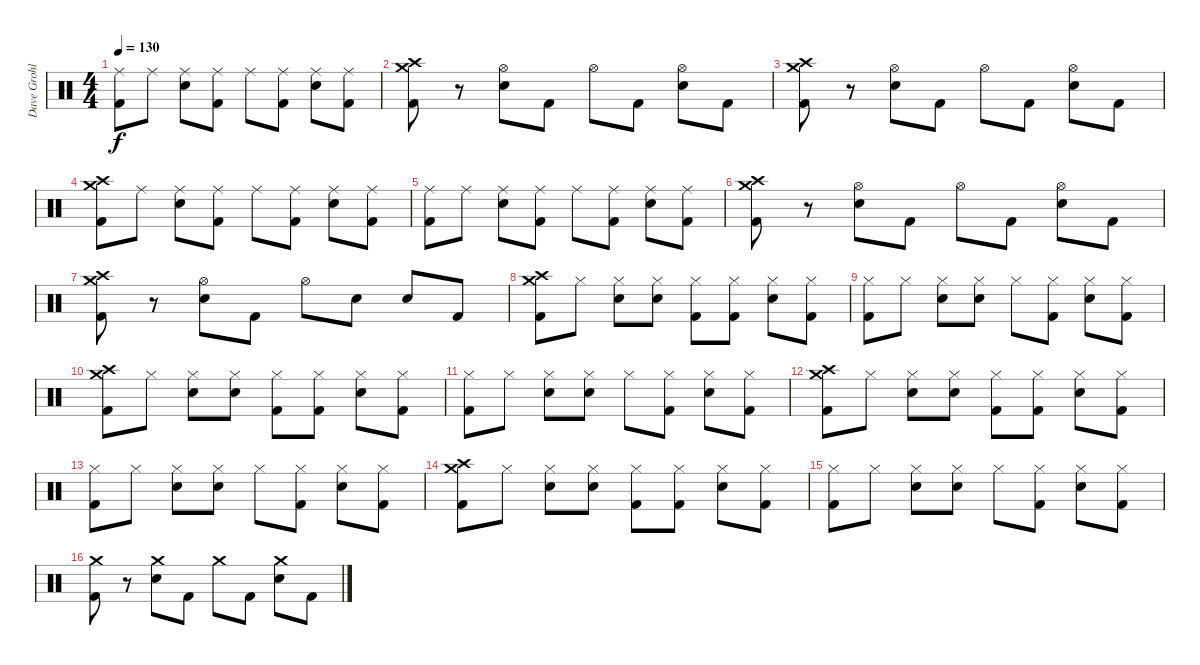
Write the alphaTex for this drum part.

\track ("Dave Grohl" "Dave Grohl") {instrument percussion}
\staff {score}
\articulation defaults
\ts (4 4)
\tempo 130
\clef neutral
\ks c
("Ride (middle)" "Kick (hit) 2").8{dy f} "Ride (middle)".8 ("Ride (middle)" "Snare (hit) 2").8 ("Ride (middle)" "Kick (hit) 2").8 "Ride (middle)".8 ("Ride (middle)" "Kick (hit) 2").8 ("Ride (middle)" "Snare (hit) 2").8 ("Ride (middle)" "Kick (hit) 2").8 |
("Crash high (hit)" "Crash medium (hit)" "Kick (hit) 2").8 r.8 ("Hi-Hat (open)" "Snare (hit) 2").8 "Kick (hit) 2".8 "Hi-Hat (open)".8 "Kick (hit) 2".8 ("Hi-Hat (open)" "Snare (hit) 2").8 "Kick (hit) 2".8 |
("Crash high (hit)" "Crash medium (hit)" "Kick (hit) 2").8 r.8 ("Hi-Hat (open)" "Snare (hit) 2").8 "Kick (hit) 2".8 "Hi-Hat (open)".8 "Kick (hit) 2".8 ("Hi-Hat (open)" "Snare (hit) 2").8 "Kick (hit) 2".8 |
("Crash high (hit)" "Crash medium (hit)" "Kick (hit) 2").8 "Ride (middle)".8 ("Ride (middle)" "Snare (hit) 2").8 ("Ride (middle)" "Kick (hit) 2").8 "Ride (middle)".8 ("Ride (middle)" "Kick (hit) 2").8 ("Ride (middle)" "Snare (hit) 2").8 ("Ride (middle)" "Kick (hit) 2").8 |
("Ride (middle)" "Kick (hit) 2").8 "Ride (middle)".8 ("Ride (middle)" "Snare (hit) 2").8 ("Ride (middle)" "Kick (hit) 2").8 "Ride (middle)".8 ("Ride (middle)" "Kick (hit) 2").8 ("Ride (middle)" "Snare (hit) 2").8 ("Ride (middle)" "Kick (hit) 2").8 |
("Crash high (hit)" "Crash medium (hit)" "Kick (hit) 2").8 r.8 ("Hi-Hat (open)" "Snare (hit) 2").8 "Kick (hit) 2".8 "Hi-Hat (open)".8 "Kick (hit) 2".8 ("Hi-Hat (open)" "Snare (hit) 2").8 "Kick (hit) 2".8 |
("Crash high (hit)" "Crash medium (hit)" "Kick (hit) 2").8 r.8 ("Hi-Hat (open)" "Snare (hit) 2").8 "Kick (hit) 2".8 "Hi-Hat (open)".8 "Snare (hit) 2".8 "Snare (hit) 2".8 "Kick (hit) 2".8 |
("Crash high (hit)" "Crash medium (hit)" "Kick (hit) 2").8 "Hi-Hat (closed)".8 ("Hi-Hat (closed)" "Snare (hit) 2").8 ("Hi-Hat (closed)" "Snare (hit) 2").8 ("Hi-Hat (closed)" "Kick (hit) 2").8 ("Hi-Hat (closed)" "Kick (hit) 2").8 ("Hi-Hat (closed)" "Snare (hit) 2").8 ("Hi-Hat (closed)" "Kick (hit) 2").8 |
("Hi-Hat (closed)" "Kick (hit) 2").8 "Hi-Hat (closed)".8 ("Hi-Hat (closed)" "Snare (hit) 2").8 ("Hi-Hat (closed)" "Snare (hit) 2").8 "Hi-Hat (closed)".8 ("Hi-Hat (closed)" "Kick (hit) 2").8 ("Hi-Hat (closed)" "Snare (hit) 2").8 ("Hi-Hat (closed)" "Kick (hit) 2").8 |
("Crash high (hit)" "Crash medium (hit)" "Kick (hit) 2").8 "Hi-Hat (closed)".8 ("Hi-Hat (closed)" "Snare (hit) 2").8 ("Hi-Hat (closed)" "Snare (hit) 2").8 ("Hi-Hat (closed)" "Kick (hit) 2").8 ("Hi-Hat (closed)" "Kick (hit) 2").8 ("Hi-Hat (closed)" "Snare (hit) 2").8 ("Hi-Hat (closed)" "Kick (hit) 2").8 |
("Hi-Hat (closed)" "Kick (hit) 2").8 "Hi-Hat (closed)".8 ("Hi-Hat (closed)" "Snare (hit) 2").8 ("Hi-Hat (closed)" "Snare (hit) 2").8 "Hi-Hat (closed)".8 ("Hi-Hat (closed)" "Kick (hit) 2").8 ("Hi-Hat (closed)" "Snare (hit) 2").8 ("Hi-Hat (closed)" "Kick (hit) 2").8 |
("Crash high (hit)" "Crash medium (hit)" "Kick (hit) 2").8 "Hi-Hat (closed)".8 ("Hi-Hat (closed)" "Snare (hit) 2").8 ("Hi-Hat (closed)" "Snare (hit) 2").8 ("Hi-Hat (closed)" "Kick (hit) 2").8 ("Hi-Hat (closed)" "Kick (hit) 2").8 ("Hi-Hat (closed)" "Snare (hit) 2").8 ("Hi-Hat (closed)" "Kick (hit) 2").8 |
("Hi-Hat (closed)" "Kick (hit) 2").8 "Hi-Hat (closed)".8 ("Hi-Hat (closed)" "Snare (hit) 2").8 ("Hi-Hat (closed)" "Snare (hit) 2").8 "Hi-Hat (closed)".8 ("Hi-Hat (closed)" "Kick (hit) 2").8 ("Hi-Hat (closed)" "Snare (hit) 2").8 ("Hi-Hat (closed)" "Kick (hit) 2").8 |
("Crash high (hit)" "Crash medium (hit)" "Kick (hit) 2").8 "Hi-Hat (closed)".8 ("Hi-Hat (closed)" "Snare (hit) 2").8 ("Hi-Hat (closed)" "Snare (hit) 2").8 ("Hi-Hat (closed)" "Kick (hit) 2").8 ("Hi-Hat (closed)" "Kick (hit) 2").8 ("Hi-Hat (closed)" "Snare (hit) 2").8 ("Hi-Hat (closed)" "Kick (hit) 2").8 |
("Hi-Hat (closed)" "Kick (hit) 2").8 "Hi-Hat (closed)".8 ("Hi-Hat (closed)" "Snare (hit) 2").8 ("Hi-Hat (closed)" "Snare (hit) 2").8 "Hi-Hat (closed)".8 ("Hi-Hat (closed)" "Kick (hit) 2").8 ("Hi-Hat (closed)" "Snare (hit) 2").8 ("Hi-Hat (closed)" "Kick (hit) 2").8 |
("Crash medium (hit)" "Kick (hit) 2").8 r.8 ("Crash medium (hit)" "Snare (hit) 2").8 "Kick (hit) 2".8 "Crash medium (hit)".8 "Kick (hit) 2".8 ("Crash medium (hit)" "Snare (hit) 2").8 "Kick (hit) 2".8
